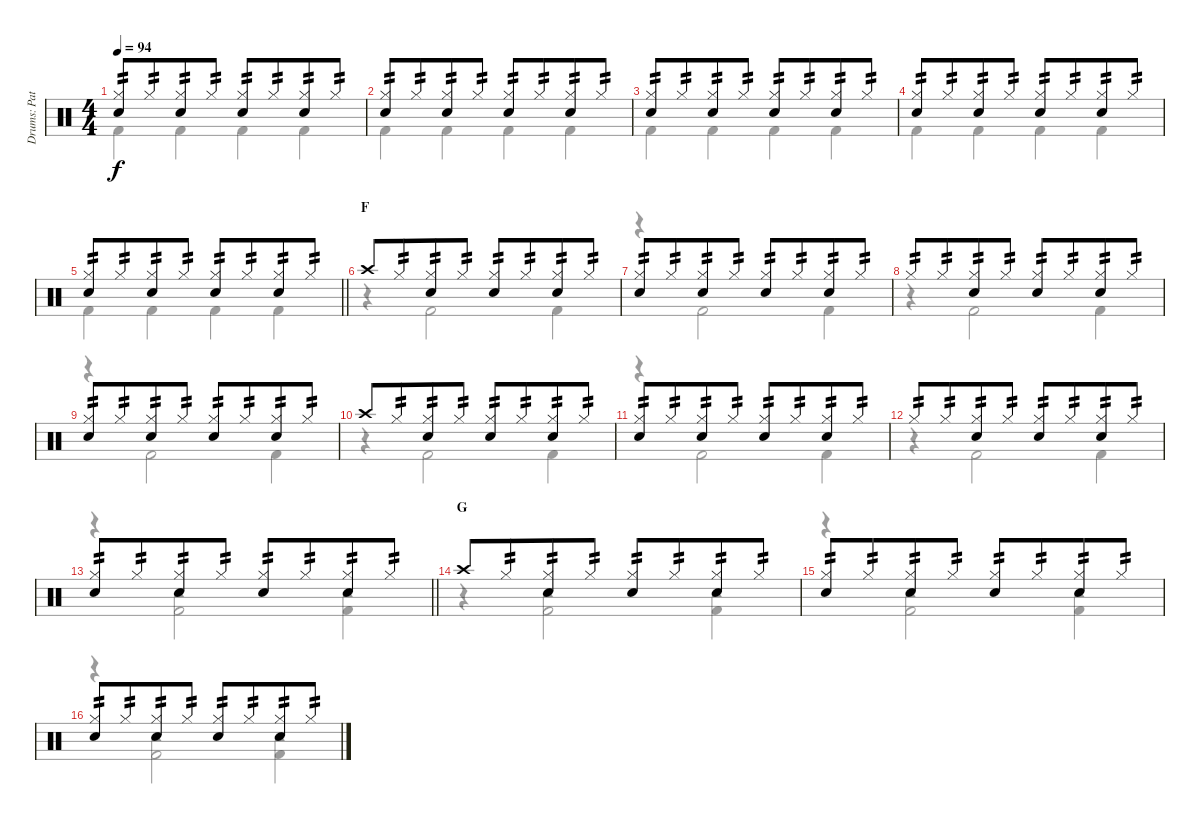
\track ("Drums: Pat" "Drums: Pat") {instrument percussion}
\staff {score}
\articulation defaults
\voice
\ts (4 4)
\tempo 94
\clef neutral
\ks c
("Hi-Hat (closed)" "Electric Snare (hit)").8{tp 2 dy f} "Hi-Hat (closed)".8{tp 2 beam merge} ("Hi-Hat (closed)" "Electric Snare (hit)").8{tp 2} "Hi-Hat (closed)".8{tp 2} ("Hi-Hat (closed)" "Electric Snare (hit)").8{tp 2} "Hi-Hat (closed)".8{tp 2 beam merge} ("Hi-Hat (closed)" "Electric Snare (hit)").8{tp 2} "Hi-Hat (closed)".8{tp 2} |
("Hi-Hat (closed)" "Electric Snare (hit)").8{tp 2} "Hi-Hat (closed)".8{tp 2 beam merge} ("Hi-Hat (closed)" "Electric Snare (hit)").8{tp 2} "Hi-Hat (closed)".8{tp 2} ("Hi-Hat (closed)" "Electric Snare (hit)").8{tp 2} "Hi-Hat (closed)".8{tp 2 beam merge} ("Hi-Hat (closed)" "Electric Snare (hit)").8{tp 2} "Hi-Hat (closed)".8{tp 2} |
("Hi-Hat (closed)" "Electric Snare (hit)").8{tp 2} "Hi-Hat (closed)".8{tp 2 beam merge} ("Hi-Hat (closed)" "Electric Snare (hit)").8{tp 2} "Hi-Hat (closed)".8{tp 2} ("Hi-Hat (closed)" "Electric Snare (hit)").8{tp 2} "Hi-Hat (closed)".8{tp 2 beam merge} ("Hi-Hat (closed)" "Electric Snare (hit)").8{tp 2} "Hi-Hat (closed)".8{tp 2} |
("Hi-Hat (closed)" "Electric Snare (hit)").8{tp 2} "Hi-Hat (closed)".8{tp 2 beam merge} ("Hi-Hat (closed)" "Electric Snare (hit)").8{tp 2} "Hi-Hat (closed)".8{tp 2} ("Hi-Hat (closed)" "Electric Snare (hit)").8{tp 2} "Hi-Hat (closed)".8{tp 2 beam merge} ("Hi-Hat (closed)" "Electric Snare (hit)").8{tp 2} "Hi-Hat (closed)".8{tp 2} |
\barLineRight lightlight
("Hi-Hat (closed)" "Electric Snare (hit)").8{tp 2} "Hi-Hat (closed)".8{tp 2 beam merge} ("Hi-Hat (closed)" "Electric Snare (hit)").8{tp 2} "Hi-Hat (closed)".8{tp 2} ("Hi-Hat (closed)" "Electric Snare (hit)").8{tp 2} "Hi-Hat (closed)".8{tp 2 beam merge} ("Hi-Hat (closed)" "Electric Snare (hit)").8{tp 2} "Hi-Hat (closed)".8{tp 2} |
\section ("" "F")
"Crash high (hit)".8 "Hi-Hat (closed)".8{tp 2 beam merge} ("Hi-Hat (closed)" "Electric Snare (hit)").8{tp 2} "Hi-Hat (closed)".8{tp 2} ("Hi-Hat (closed)" "Electric Snare (hit)").8{tp 2} "Hi-Hat (closed)".8{tp 2 beam merge} ("Hi-Hat (closed)" "Electric Snare (hit)").8{tp 2} "Hi-Hat (closed)".8{tp 2} |
("Hi-Hat (closed)" "Electric Snare (hit)").8{tp 2} "Hi-Hat (closed)".8{tp 2 beam merge} ("Hi-Hat (closed)" "Electric Snare (hit)").8{tp 2} "Hi-Hat (closed)".8{tp 2} ("Hi-Hat (closed)" "Electric Snare (hit)").8{tp 2} "Hi-Hat (closed)".8{tp 2 beam merge} ("Hi-Hat (closed)" "Electric Snare (hit)").8{tp 2} "Hi-Hat (closed)".8{tp 2} |
"Hi-Hat (closed)".8{tp 2} "Hi-Hat (closed)".8{tp 2 beam merge} ("Hi-Hat (closed)" "Electric Snare (hit)").8{tp 2} "Hi-Hat (closed)".8{tp 2} ("Hi-Hat (closed)" "Electric Snare (hit)").8{tp 2} "Hi-Hat (closed)".8{tp 2 beam merge} ("Hi-Hat (closed)" "Electric Snare (hit)").8{tp 2} "Hi-Hat (closed)".8{tp 2} |
("Hi-Hat (closed)" "Electric Snare (hit)").8{tp 2} "Hi-Hat (closed)".8{tp 2 beam merge} ("Hi-Hat (closed)" "Electric Snare (hit)").8{tp 2} "Hi-Hat (closed)".8{tp 2} ("Hi-Hat (closed)" "Electric Snare (hit)").8{tp 2} "Hi-Hat (closed)".8{tp 2 beam merge} ("Hi-Hat (closed)" "Electric Snare (hit)").8{tp 2} "Hi-Hat (closed)".8{tp 2} |
"Crash high (hit)".8 "Hi-Hat (closed)".8{tp 2 beam merge} ("Hi-Hat (closed)" "Electric Snare (hit)").8{tp 2} "Hi-Hat (closed)".8{tp 2} ("Hi-Hat (closed)" "Electric Snare (hit)").8{tp 2} "Hi-Hat (closed)".8{tp 2 beam merge} ("Hi-Hat (closed)" "Electric Snare (hit)").8{tp 2} "Hi-Hat (closed)".8{tp 2} |
("Hi-Hat (closed)" "Electric Snare (hit)").8{tp 2} "Hi-Hat (closed)".8{tp 2 beam merge} ("Hi-Hat (closed)" "Electric Snare (hit)").8{tp 2} "Hi-Hat (closed)".8{tp 2} ("Hi-Hat (closed)" "Electric Snare (hit)").8{tp 2} "Hi-Hat (closed)".8{tp 2 beam merge} ("Hi-Hat (closed)" "Electric Snare (hit)").8{tp 2} "Hi-Hat (closed)".8{tp 2} |
"Hi-Hat (closed)".8{tp 2} "Hi-Hat (closed)".8{tp 2 beam merge} ("Hi-Hat (closed)" "Electric Snare (hit)").8{tp 2} "Hi-Hat (closed)".8{tp 2} ("Hi-Hat (closed)" "Electric Snare (hit)").8{tp 2} "Hi-Hat (closed)".8{tp 2 beam merge} ("Hi-Hat (closed)" "Electric Snare (hit)").8{tp 2} "Hi-Hat (closed)".8{tp 2} |
\barLineRight lightlight
("Hi-Hat (closed)" "Electric Snare (hit)").8{tp 2} "Hi-Hat (closed)".8{tp 2 beam merge} ("Hi-Hat (closed)" "Electric Snare (hit)").8{tp 2} "Hi-Hat (closed)".8{tp 2} ("Hi-Hat (closed)" "Electric Snare (hit)").8{tp 2} "Hi-Hat (closed)".8{tp 2 beam merge} ("Hi-Hat (closed)" "Electric Snare (hit)").8{tp 2} "Hi-Hat (closed)".8{tp 2} |
\section ("" "G")
"Crash high (hit)".8 "Hi-Hat (closed)".8{tp 2 beam merge} ("Hi-Hat (closed)" "Electric Snare (hit)").8{tp 2} "Hi-Hat (closed)".8{tp 2} ("Hi-Hat (closed)" "Electric Snare (hit)").8{tp 2} "Hi-Hat (closed)".8{tp 2 beam merge} ("Hi-Hat (closed)" "Electric Snare (hit)").8{tp 2} "Hi-Hat (closed)".8{tp 2} |
("Hi-Hat (closed)" "Electric Snare (hit)").8{tp 2} "Hi-Hat (closed)".8{tp 2 beam merge} ("Hi-Hat (closed)" "Electric Snare (hit)").8{tp 2} "Hi-Hat (closed)".8{tp 2} ("Hi-Hat (closed)" "Electric Snare (hit)").8{tp 2} "Hi-Hat (closed)".8{tp 2 beam merge} ("Hi-Hat (closed)" "Electric Snare (hit)").8{tp 2} "Hi-Hat (closed)".8{tp 2} |
("Hi-Hat (closed)" "Electric Snare (hit)").8{tp 2} "Hi-Hat (closed)".8{tp 2 beam merge} ("Hi-Hat (closed)" "Electric Snare (hit)").8{tp 2} "Hi-Hat (closed)".8{tp 2} ("Hi-Hat (closed)" "Electric Snare (hit)").8{tp 2} "Hi-Hat (closed)".8{tp 2 beam merge} ("Hi-Hat (closed)" "Electric Snare (hit)").8{tp 2} "Hi-Hat (closed)".8{tp 2}
\voice
\clef neutral
\ottava regular
\simile none
\ks c "Kick (hit) 2".4{dy f} "Kick (hit) 2".4 "Kick (hit) 2".4 "Kick (hit) 2".4
|
"Kick (hit) 2".4 "Kick (hit) 2".4 "Kick (hit) 2".4 "Kick (hit) 2".4 |
"Kick (hit) 2".4 "Kick (hit) 2".4 "Kick (hit) 2".4 "Kick (hit) 2".4 |
"Kick (hit) 2".4 "Kick (hit) 2".4 "Kick (hit) 2".4 "Kick (hit) 2".4 |
\barLineRight lightlight "Kick (hit) 2".4 "Kick (hit) 2".4 "Kick (hit) 2".4 "Kick (hit) 2".4
|
r.4 "Kick (hit) 2".2 "Kick (hit) 2".4 |
r.4 "Kick (hit) 2".2 "Kick (hit) 2".4 |
r.4 "Kick (hit) 2".2 "Kick (hit) 2".4 |
r.4 "Kick (hit) 2".2 "Kick (hit) 2".4 |
r.4 "Kick (hit) 2".2 "Kick (hit) 2".4 |
r.4 "Kick (hit) 2".2 "Kick (hit) 2".4 |
r.4 "Kick (hit) 2".2 "Kick (hit) 2".4 |
\barLineRight lightlight
r.4 ("Kick (hit) 2" "Tambourine (hit)").2 ("Kick (hit) 2" "Tambourine (hit)").4 |
r.4 ("Kick (hit) 2" "Tambourine (hit)").2 ("Kick (hit) 2" "Tambourine (hit)").4 |
r.4 ("Kick (hit) 2" "Tambourine (hit)").2 ("Kick (hit) 2" "Tambourine (hit)").4 |
r.4 ("Kick (hit) 2" "Tambourine (hit)").2 ("Kick (hit) 2" "Tambourine (hit)").4
